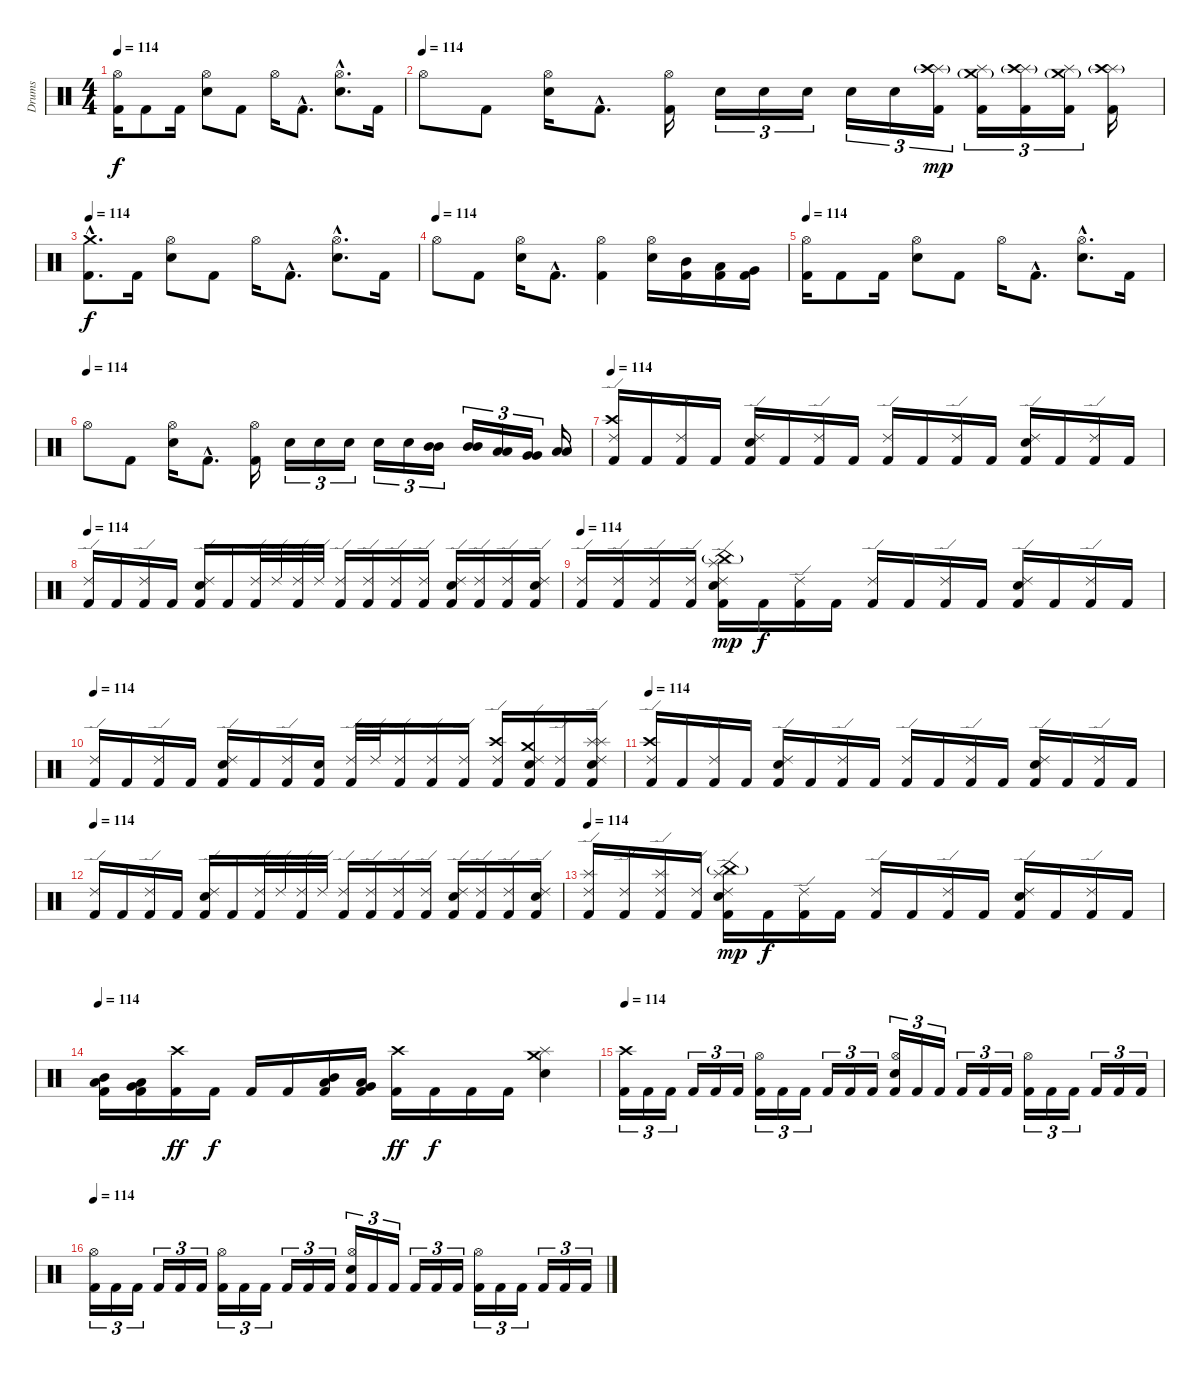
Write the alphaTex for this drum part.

\track ("Drums" "Drums") {instrument percussion}
\staff {score}
\articulation defaults
\ts (4 4)
\tempo 114
\clef neutral
\ks c
("Kick (hit) 2" "Hi-Hat (open)").16{dy f} "Kick (hit) 2".8 "Kick (hit) 2".16 ("Electric Snare (hit)" "Hi-Hat (open)").8 "Kick (hit) 2".8 "Hi-Hat (open)".16 "Kick (hit) 2"{hac}.8{d} ("Electric Snare (hit)"{hac} "Hi-Hat (open)"{hac}).8{d} "Kick (hit) 2".16 |
\tempo (114)
"Hi-Hat (open)".8 "Kick (hit) 2".8 ("Electric Snare (hit)" "Hi-Hat (open)").16 "Kick (hit) 2"{hac}.8{d} ("Kick (hit) 2" "Hi-Hat (open)").16 "Electric Snare (hit)".16{tu (3 2)} "Electric Snare (hit)".16{tu (3 2)} "Electric Snare (hit)".16{tu (3 2)} "Electric Snare (hit)".16{tu (3 2)} "Electric Snare (hit)".16{tu (3 2)} ("Kick (hit) 2" "Splash (hit)" "Crash high (hit)"{g}).16{tu (3 2) dy mp} ("Kick (hit) 2" "Splash (hit)" "Crash medium (hit)"{g}).16{tu (3 2)} ("Kick (hit) 2" "Splash (hit)" "Crash high (hit)"{g}).16{tu (3 2)} ("Kick (hit) 2" "Splash (hit)" "Crash medium (hit)"{g}).16{tu (3 2)} ("Kick (hit) 2" "Splash (hit)" "Crash high (hit)"{g}).16 |
\tempo 110
\tempo 114
("Kick (hit) 2"{hac} "Crash medium (hit)"{hac}).8{d dy f} "Kick (hit) 2".16 ("Electric Snare (hit)" "Hi-Hat (open)").8 "Kick (hit) 2".8 "Hi-Hat (open)".16 "Kick (hit) 2"{hac}.8{d} ("Electric Snare (hit)"{hac} "Hi-Hat (open)"{hac}).8{d} "Kick (hit) 2".16 |
\tempo (114)
"Hi-Hat (open)".8 "Kick (hit) 2".8 ("Electric Snare (hit)" "Hi-Hat (open)").16 "Kick (hit) 2"{hac}.8{d} ("Kick (hit) 2" "Hi-Hat (open)").4 ("Electric Snare (hit)" "Hi-Hat (open)").16 ("Kick (hit) 2" "Mid Tom (hit)").16 ("Kick (hit) 2" "Low Tom (hit)").16 ("Kick (hit) 2" "Very Low Tom (hit)").16 |
\tempo 114
("Kick (hit) 2" "Hi-Hat (open)").16 "Kick (hit) 2".8 "Kick (hit) 2".16 ("Electric Snare (hit)" "Hi-Hat (open)").8 "Kick (hit) 2".8 "Hi-Hat (open)".16 "Kick (hit) 2"{hac}.8{d} ("Electric Snare (hit)"{hac} "Hi-Hat (open)"{hac}).8{d} "Kick (hit) 2".16 |
\tempo (114)
"Hi-Hat (open)".8 "Kick (hit) 2".8 ("Electric Snare (hit)" "Hi-Hat (open)").16 "Kick (hit) 2"{hac}.8{d} ("Kick (hit) 2" "Hi-Hat (open)").16 "Electric Snare (hit)".16{tu (3 2)} "Electric Snare (hit)".16{tu (3 2)} "Electric Snare (hit)".16{tu (3 2)} "Electric Snare (hit)".16{tu (3 2)} "Electric Snare (hit)".16{tu (3 2)} ("Mid Tom (hit)" "Mid Tom (hit)").16{tu (3 2)} ("Mid Tom (hit)" "Mid Tom (hit)").16{tu (3 2)} ("Low Tom (hit)" "Low Tom (hit)").16{tu (3 2)} ("Very Low Tom (hit)" "Very Low Tom (hit)").16{tu (3 2)} ("Low Floor Tom (hit)" "Low Floor Tom (hit)").16 |
\tempo 114
("Kick (hit) 2" "Ride (edge) 2" "Crash high (hit)").16 "Kick (hit) 2".16 ("Kick (hit) 2" "Ride (edge) 2").16 "Kick (hit) 2".16 ("Kick (hit) 2" "Electric Snare (hit)" "Ride (edge) 2").16 "Kick (hit) 2".16 ("Kick (hit) 2" "Ride (edge) 2").16 "Kick (hit) 2".16 ("Kick (hit) 2" "Ride (edge) 2").16 "Kick (hit) 2".16 ("Kick (hit) 2" "Ride (edge) 2").16 "Kick (hit) 2".16 ("Kick (hit) 2" "Electric Snare (hit)" "Ride (edge) 2").16 "Kick (hit) 2".16 ("Kick (hit) 2" "Ride (edge) 2").16 "Kick (hit) 2".16 |
\tempo 114
("Kick (hit) 2" "Ride (edge) 2").16 "Kick (hit) 2".16 ("Kick (hit) 2" "Ride (edge) 2").16 "Kick (hit) 2".16 ("Kick (hit) 2" "Electric Snare (hit)" "Ride (edge) 2").16 "Kick (hit) 2".16 ("Kick (hit) 2" "Ride (edge) 2").32 "Ride (edge) 2".32 ("Kick (hit) 2" "Ride (edge) 2").32 "Ride (edge) 2".32 ("Kick (hit) 2" "Ride (edge) 2").16 ("Kick (hit) 2" "Ride (edge) 2").16 ("Kick (hit) 2" "Ride (edge) 2").16 ("Kick (hit) 2" "Ride (edge) 2").16 ("Kick (hit) 2" "Electric Snare (hit)" "Ride (edge) 2").16 ("Kick (hit) 2" "Ride (edge) 2").16 ("Kick (hit) 2" "Ride (edge) 2").16 ("Kick (hit) 2" "Electric Snare (hit)" "Ride (edge) 2").16 |
\tempo 114
("Kick (hit) 2" "Ride (edge) 2").16 ("Kick (hit) 2" "Ride (edge) 2").16 ("Kick (hit) 2" "Ride (edge) 2").16 ("Kick (hit) 2" "Ride (edge) 2").16 ("Kick (hit) 2" "Electric Snare (hit)" "Ride (edge) 2" "Splash (hit)" "China (hit)"{g}).16{dy mp} "Kick (hit) 2".16{dy f} ("Kick (hit) 2" "Ride (edge) 2").16 "Kick (hit) 2".16 ("Kick (hit) 2" "Ride (edge) 2").16 "Kick (hit) 2".16 ("Kick (hit) 2" "Ride (edge) 2").16 "Kick (hit) 2".16 ("Kick (hit) 2" "Electric Snare (hit)" "Ride (edge) 2").16 "Kick (hit) 2".16 ("Kick (hit) 2" "Ride (edge) 2").16 "Kick (hit) 2".16 |
\tempo 114
("Kick (hit) 2" "Ride (edge) 2").16 "Kick (hit) 2".16 ("Kick (hit) 2" "Ride (edge) 2").16 "Kick (hit) 2".16 ("Kick (hit) 2" "Electric Snare (hit)" "Ride (edge) 2").16 "Kick (hit) 2".16 ("Kick (hit) 2" "Ride (edge) 2").16 ("Kick (hit) 2" "Electric Snare (hit)").16 ("Kick (hit) 2" "Ride (edge) 2").32 "Ride (edge) 2".32 ("Kick (hit) 2" "Ride (edge) 2").16 ("Kick (hit) 2" "Ride (edge) 2").16 ("Kick (hit) 2" "Ride (edge) 2").16 ("Kick (hit) 2" "Ride (edge) 2" "Crash high (hit)").16 ("Kick (hit) 2" "Electric Snare (hit)" "Ride (edge) 2" "Crash medium (hit)").16 ("Kick (hit) 2" "Ride (edge) 2").16 ("Kick (hit) 2" "Electric Snare (hit)" "Ride (edge) 2" "Splash (hit)" "Splash (hit)").16 |
\tempo 114
("Kick (hit) 2" "Ride (edge) 2" "Crash high (hit)").16 "Kick (hit) 2".16 ("Kick (hit) 2" "Ride (edge) 2").16 "Kick (hit) 2".16 ("Kick (hit) 2" "Electric Snare (hit)" "Ride (edge) 2").16 "Kick (hit) 2".16 ("Kick (hit) 2" "Ride (edge) 2").16 "Kick (hit) 2".16 ("Kick (hit) 2" "Ride (edge) 2").16 "Kick (hit) 2".16 ("Kick (hit) 2" "Ride (edge) 2").16 "Kick (hit) 2".16 ("Kick (hit) 2" "Electric Snare (hit)" "Ride (edge) 2").16 "Kick (hit) 2".16 ("Kick (hit) 2" "Ride (edge) 2").16 "Kick (hit) 2".16 |
\tempo 114
("Kick (hit) 2" "Ride (edge) 2").16 "Kick (hit) 2".16 ("Kick (hit) 2" "Ride (edge) 2").16 "Kick (hit) 2".16 ("Kick (hit) 2" "Electric Snare (hit)" "Ride (edge) 2").16 "Kick (hit) 2".16 ("Kick (hit) 2" "Ride (edge) 2").32 "Ride (edge) 2".32 ("Kick (hit) 2" "Ride (edge) 2").32 "Ride (edge) 2".32 ("Kick (hit) 2" "Ride (edge) 2").16 ("Kick (hit) 2" "Ride (edge) 2").16 ("Kick (hit) 2" "Ride (edge) 2").16 ("Kick (hit) 2" "Ride (edge) 2").16 ("Kick (hit) 2" "Electric Snare (hit)" "Ride (edge) 2").16 ("Kick (hit) 2" "Ride (edge) 2").16 ("Kick (hit) 2" "Ride (edge) 2").16 ("Kick (hit) 2" "Electric Snare (hit)" "Ride (edge) 2").16 |
\tempo 114
("Kick (hit) 2" "Ride (edge) 2" "Splash (hit)").16 ("Kick (hit) 2" "Ride (edge) 2").16 ("Kick (hit) 2" "Ride (edge) 2" "Splash (hit)").16 ("Kick (hit) 2" "Ride (edge) 2").16 ("Kick (hit) 2" "Electric Snare (hit)" "Ride (edge) 2" "Splash (hit)" "China (hit)"{g}).16{dy mp} "Kick (hit) 2".16{dy f} ("Kick (hit) 2" "Ride (edge) 2").16 "Kick (hit) 2".16 ("Kick (hit) 2" "Ride (edge) 2").16 "Kick (hit) 2".16 ("Kick (hit) 2" "Ride (edge) 2").16 "Kick (hit) 2".16 ("Kick (hit) 2" "Electric Snare (hit)" "Ride (edge) 2").16 "Kick (hit) 2".16 ("Kick (hit) 2" "Ride (edge) 2").16 "Kick (hit) 2".16 |
\tempo 114
("Kick (hit) 2" "Mid Tom (hit)" "Low Tom (hit)").16 ("Kick (hit) 2" "Low Tom (hit)" "Very Low Tom (hit)").16 ("Kick (hit) 2" "Crash high (hit)").16{dy ff} "Kick (hit) 2".16{dy f} "Kick (hit) 2".16 "Kick (hit) 2".16 ("Kick (hit) 2" "Mid Tom (hit)" "Low Tom (hit)").16 ("Kick (hit) 2" "Low Tom (hit)" "Very Low Tom (hit)").16 ("Kick (hit) 2" "Crash high (hit)").16{dy ff} "Kick (hit) 2".16{dy f} "Kick (hit) 2".16 "Kick (hit) 2".16 ("Electric Snare (hit)" "Crash medium (hit)" "Splash (hit)").4 |
\tempo 114
("Kick (hit) 2" "Crash high (hit)").16{tu (3 2)} "Kick (hit) 2".16{tu (3 2)} "Kick (hit) 2".16{tu (3 2)} "Kick (hit) 2".16{tu (3 2)} "Kick (hit) 2".16{tu (3 2)} "Kick (hit) 2".16{tu (3 2)} ("Kick (hit) 2" "Hi-Hat (open)").16{tu (3 2)} "Kick (hit) 2".16{tu (3 2)} "Kick (hit) 2".16{tu (3 2)} "Kick (hit) 2".16{tu (3 2)} "Kick (hit) 2".16{tu (3 2)} "Kick (hit) 2".16{tu (3 2)} ("Kick (hit) 2" "Electric Snare (hit)" "Hi-Hat (open)").16{tu (3 2)} "Kick (hit) 2".16{tu (3 2)} "Kick (hit) 2".16{tu (3 2)} "Kick (hit) 2".16{tu (3 2)} "Kick (hit) 2".16{tu (3 2)} "Kick (hit) 2".16{tu (3 2)} ("Kick (hit) 2" "Hi-Hat (open)").16{tu (3 2)} "Kick (hit) 2".16{tu (3 2)} "Kick (hit) 2".16{tu (3 2)} "Kick (hit) 2".16{tu (3 2)} "Kick (hit) 2".16{tu (3 2)} "Kick (hit) 2".16{tu (3 2)} |
\tempo 114
("Kick (hit) 2" "Hi-Hat (open)").16{tu (3 2)} "Kick (hit) 2".16{tu (3 2)} "Kick (hit) 2".16{tu (3 2)} "Kick (hit) 2".16{tu (3 2)} "Kick (hit) 2".16{tu (3 2)} "Kick (hit) 2".16{tu (3 2)} ("Kick (hit) 2" "Hi-Hat (open)").16{tu (3 2)} "Kick (hit) 2".16{tu (3 2)} "Kick (hit) 2".16{tu (3 2)} "Kick (hit) 2".16{tu (3 2)} "Kick (hit) 2".16{tu (3 2)} "Kick (hit) 2".16{tu (3 2)} ("Kick (hit) 2" "Electric Snare (hit)" "Hi-Hat (open)").16{tu (3 2)} "Kick (hit) 2".16{tu (3 2)} "Kick (hit) 2".16{tu (3 2)} "Kick (hit) 2".16{tu (3 2)} "Kick (hit) 2".16{tu (3 2)} "Kick (hit) 2".16{tu (3 2)} ("Kick (hit) 2" "Hi-Hat (open)").16{tu (3 2)} "Kick (hit) 2".16{tu (3 2)} "Kick (hit) 2".16{tu (3 2)} "Kick (hit) 2".16{tu (3 2)} "Kick (hit) 2".16{tu (3 2)} "Kick (hit) 2".16{tu (3 2)}
